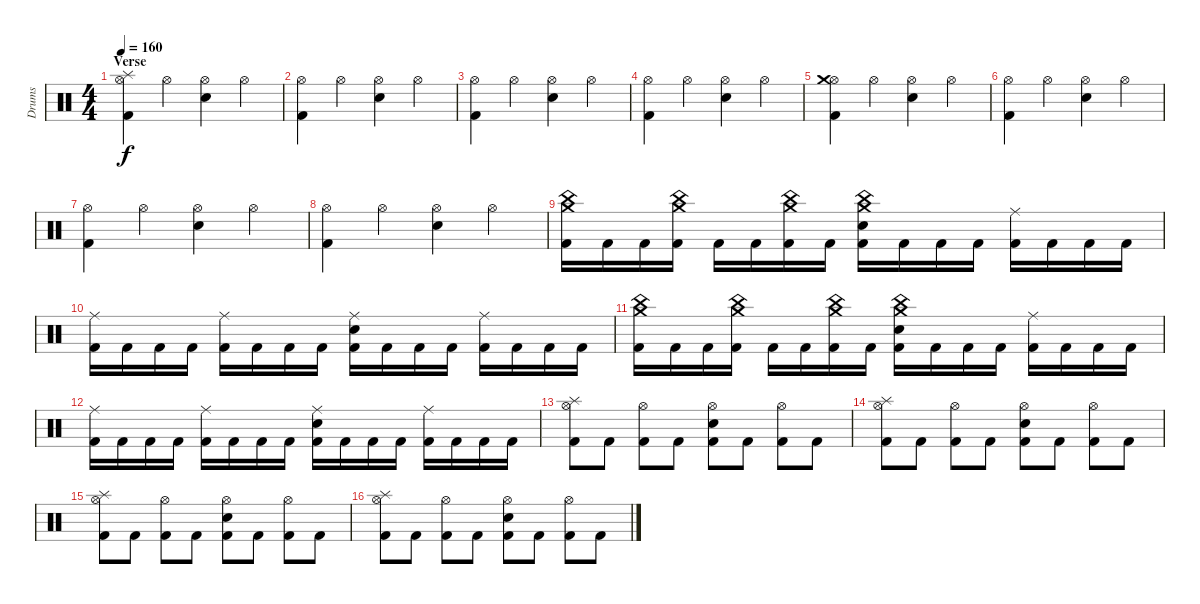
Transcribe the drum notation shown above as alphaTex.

\track ("Drums" "Drums") {instrument percussion}
\staff {score}
\articulation defaults
\ts (4 4)
\section ("" "Verse")
\tempo 160
\clef neutral
\ks c
("Hi-Hat (open)" "Splash (hit)" "Kick (hit) 2").4{dy f} "Hi-Hat (open)".4 ("Hi-Hat (open)" "Snare (hit) 2").4 "Hi-Hat (open)".4 |
("Hi-Hat (open)" "Kick (hit) 2").4 "Hi-Hat (open)".4 ("Hi-Hat (open)" "Snare (hit) 2").4 "Hi-Hat (open)".4 |
("Hi-Hat (open)" "Kick (hit) 2").4 "Hi-Hat (open)".4 ("Hi-Hat (open)" "Snare (hit) 2").4 "Hi-Hat (open)".4 |
("Hi-Hat (open)" "Kick (hit) 2").4 "Hi-Hat (open)".4 ("Hi-Hat (open)" "Snare (hit) 2").4 "Hi-Hat (open)".4 |
("Hi-Hat (open)" "Crash medium (hit)" "Kick (hit) 2").4 "Hi-Hat (open)".4 ("Hi-Hat (open)" "Snare (hit) 2").4 "Hi-Hat (open)".4 |
("Hi-Hat (open)" "Kick (hit) 2").4 "Hi-Hat (open)".4 ("Hi-Hat (open)" "Snare (hit) 2").4 "Hi-Hat (open)".4 |
("Hi-Hat (open)" "Kick (hit) 2").4 "Hi-Hat (open)".4 ("Hi-Hat (open)" "Snare (hit) 2").4 "Hi-Hat (open)".4 |
("Hi-Hat (open)" "Kick (hit) 2").4 "Hi-Hat (open)".4 ("Hi-Hat (open)" "Snare (hit) 2").4 "Hi-Hat (open)".4 |
("China (hit)" "Crash medium (hit)" "Kick (hit) 2").16 "Kick (hit) 2".16 "Kick (hit) 2".16 ("China (hit)" "Crash medium (hit)" "Kick (hit) 2").16 "Kick (hit) 2".16 "Kick (hit) 2".16 ("China (hit)" "Crash medium (hit)" "Kick (hit) 2").16 "Kick (hit) 2".16 ("China (hit)" "Snare (hit) 2" "Crash medium (hit)" "Kick (hit) 2").16 "Kick (hit) 2".16 "Kick (hit) 2".16 "Kick (hit) 2".16 ("Ride (middle)" "Kick (hit) 2").16 "Kick (hit) 2".16 "Kick (hit) 2".16 "Kick (hit) 2".16 |
("Ride (middle)" "Kick (hit) 2").16 "Kick (hit) 2".16 "Kick (hit) 2".16 "Kick (hit) 2".16 ("Ride (middle)" "Kick (hit) 2").16 "Kick (hit) 2".16 "Kick (hit) 2".16 "Kick (hit) 2".16 ("Ride (middle)" "Snare (hit) 2" "Kick (hit) 2").16 "Kick (hit) 2".16 "Kick (hit) 2".16 "Kick (hit) 2".16 ("Ride (middle)" "Kick (hit) 2").16 "Kick (hit) 2".16 "Kick (hit) 2".16 "Kick (hit) 2".16 |
("China (hit)" "Crash medium (hit)" "Kick (hit) 2").16 "Kick (hit) 2".16 "Kick (hit) 2".16 ("China (hit)" "Crash medium (hit)" "Kick (hit) 2").16 "Kick (hit) 2".16 "Kick (hit) 2".16 ("China (hit)" "Crash medium (hit)" "Kick (hit) 2").16 "Kick (hit) 2".16 ("China (hit)" "Snare (hit) 2" "Crash medium (hit)" "Kick (hit) 2").16 "Kick (hit) 2".16 "Kick (hit) 2".16 "Kick (hit) 2".16 ("Ride (middle)" "Kick (hit) 2").16 "Kick (hit) 2".16 "Kick (hit) 2".16 "Kick (hit) 2".16 |
("Ride (middle)" "Kick (hit) 2").16 "Kick (hit) 2".16 "Kick (hit) 2".16 "Kick (hit) 2".16 ("Ride (middle)" "Kick (hit) 2").16 "Kick (hit) 2".16 "Kick (hit) 2".16 "Kick (hit) 2".16 ("Ride (middle)" "Snare (hit) 2" "Kick (hit) 2").16 "Kick (hit) 2".16 "Kick (hit) 2".16 "Kick (hit) 2".16 ("Ride (middle)" "Kick (hit) 2").16 "Kick (hit) 2".16 "Kick (hit) 2".16 "Kick (hit) 2".16 |
("Hi-Hat (open)" "Splash (hit)" "Kick (hit) 2").8 "Kick (hit) 2".8 ("Hi-Hat (open)" "Kick (hit) 2").8 "Kick (hit) 2".8 ("Hi-Hat (open)" "Snare (hit) 2" "Kick (hit) 2").8 "Kick (hit) 2".8 ("Hi-Hat (open)" "Kick (hit) 2").8 "Kick (hit) 2".8 |
("Hi-Hat (open)" "Splash (hit)" "Kick (hit) 2").8 "Kick (hit) 2".8 ("Hi-Hat (open)" "Kick (hit) 2").8 "Kick (hit) 2".8 ("Hi-Hat (open)" "Snare (hit) 2" "Kick (hit) 2").8 "Kick (hit) 2".8 ("Hi-Hat (open)" "Kick (hit) 2").8 "Kick (hit) 2".8 |
("Hi-Hat (open)" "Splash (hit)" "Kick (hit) 2").8 "Kick (hit) 2".8 ("Hi-Hat (open)" "Kick (hit) 2").8 "Kick (hit) 2".8 ("Hi-Hat (open)" "Snare (hit) 2" "Kick (hit) 2").8 "Kick (hit) 2".8 ("Hi-Hat (open)" "Kick (hit) 2").8 "Kick (hit) 2".8 |
("Hi-Hat (open)" "Splash (hit)" "Kick (hit) 2").8 "Kick (hit) 2".8 ("Hi-Hat (open)" "Kick (hit) 2").8 "Kick (hit) 2".8 ("Hi-Hat (open)" "Snare (hit) 2" "Kick (hit) 2").8 "Kick (hit) 2".8 ("Hi-Hat (open)" "Kick (hit) 2").8 "Kick (hit) 2".8
